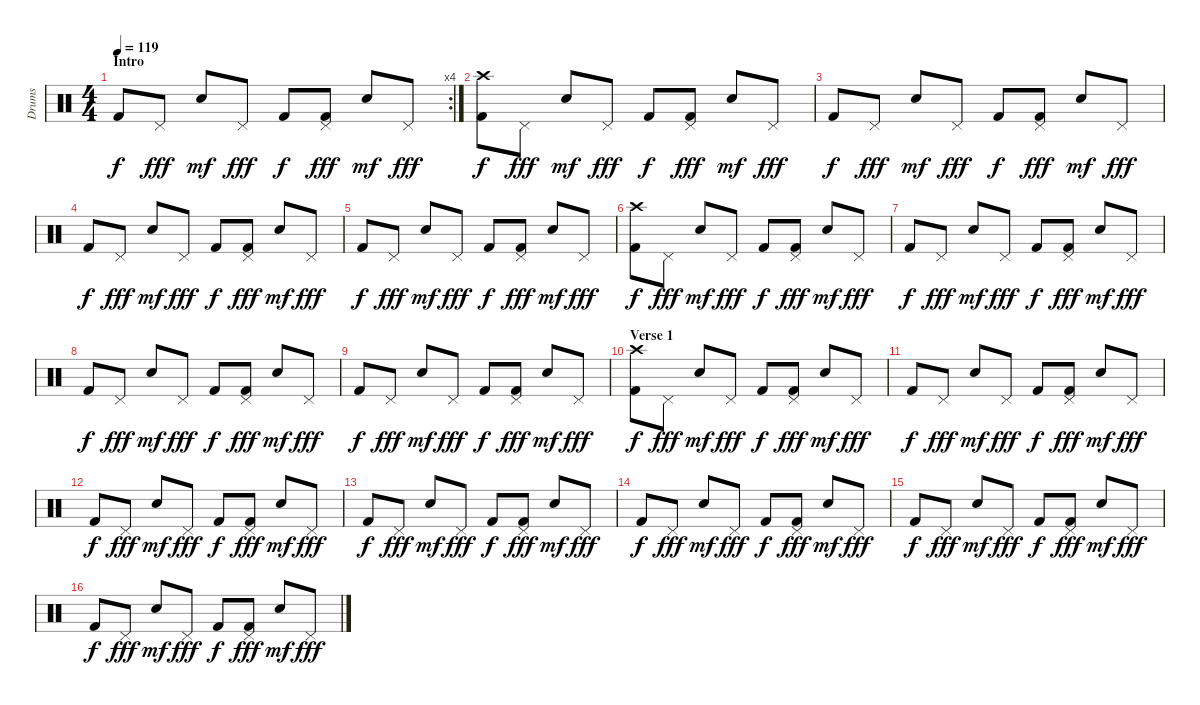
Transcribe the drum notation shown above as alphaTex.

\track ("Drums" "Drums") {instrument percussion}
\staff {score}
\articulation defaults
\rc 4
\ts (4 4)
\section ("" "Intro")
\tempo 119
\clef neutral
\ks c "Kick (hit) 2".8{dy f} "Pedal Hi-Hat (hit)".8{dy fff} "Electric Snare (hit)".8{dy mf} "Pedal Hi-Hat (hit)".8{dy fff} "Kick (hit) 2".8{dy f}
("Pedal Hi-Hat (hit)" "Kick (hit) 2").8{dy fff} "Electric Snare (hit)".8{dy mf} "Pedal Hi-Hat (hit)".8{dy fff} |
("Crash high (hit)" "Kick (hit) 2").8{dy f} "Pedal Hi-Hat (hit)".8{dy fff} "Electric Snare (hit)".8{dy mf} "Pedal Hi-Hat (hit)".8{dy fff} "Kick (hit) 2".8{dy f} ("Pedal Hi-Hat (hit)" "Kick (hit) 2").8{dy fff} "Electric Snare (hit)".8{dy mf} "Pedal Hi-Hat (hit)".8{dy fff} |
"Kick (hit) 2".8{dy f} "Pedal Hi-Hat (hit)".8{dy fff} "Electric Snare (hit)".8{dy mf} "Pedal Hi-Hat (hit)".8{dy fff} "Kick (hit) 2".8{dy f} ("Pedal Hi-Hat (hit)" "Kick (hit) 2").8{dy fff} "Electric Snare (hit)".8{dy mf} "Pedal Hi-Hat (hit)".8{dy fff} |
"Kick (hit) 2".8{dy f} "Pedal Hi-Hat (hit)".8{dy fff} "Electric Snare (hit)".8{dy mf} "Pedal Hi-Hat (hit)".8{dy fff} "Kick (hit) 2".8{dy f} ("Pedal Hi-Hat (hit)" "Kick (hit) 2").8{dy fff} "Electric Snare (hit)".8{dy mf} "Pedal Hi-Hat (hit)".8{dy fff} |
"Kick (hit) 2".8{dy f} "Pedal Hi-Hat (hit)".8{dy fff} "Electric Snare (hit)".8{dy mf} "Pedal Hi-Hat (hit)".8{dy fff} "Kick (hit) 2".8{dy f} ("Pedal Hi-Hat (hit)" "Kick (hit) 2").8{dy fff} "Electric Snare (hit)".8{dy mf} "Pedal Hi-Hat (hit)".8{dy fff} |
("Crash high (hit)" "Kick (hit) 2").8{dy f} "Pedal Hi-Hat (hit)".8{dy fff} "Electric Snare (hit)".8{dy mf} "Pedal Hi-Hat (hit)".8{dy fff} "Kick (hit) 2".8{dy f} ("Pedal Hi-Hat (hit)" "Kick (hit) 2").8{dy fff} "Electric Snare (hit)".8{dy mf} "Pedal Hi-Hat (hit)".8{dy fff} |
"Kick (hit) 2".8{dy f} "Pedal Hi-Hat (hit)".8{dy fff} "Electric Snare (hit)".8{dy mf} "Pedal Hi-Hat (hit)".8{dy fff} "Kick (hit) 2".8{dy f} ("Pedal Hi-Hat (hit)" "Kick (hit) 2").8{dy fff} "Electric Snare (hit)".8{dy mf} "Pedal Hi-Hat (hit)".8{dy fff} |
"Kick (hit) 2".8{dy f} "Pedal Hi-Hat (hit)".8{dy fff} "Electric Snare (hit)".8{dy mf} "Pedal Hi-Hat (hit)".8{dy fff} "Kick (hit) 2".8{dy f} ("Pedal Hi-Hat (hit)" "Kick (hit) 2").8{dy fff} "Electric Snare (hit)".8{dy mf} "Pedal Hi-Hat (hit)".8{dy fff} |
"Kick (hit) 2".8{dy f} "Pedal Hi-Hat (hit)".8{dy fff} "Electric Snare (hit)".8{dy mf} "Pedal Hi-Hat (hit)".8{dy fff} "Kick (hit) 2".8{dy f} ("Pedal Hi-Hat (hit)" "Kick (hit) 2").8{dy fff} "Electric Snare (hit)".8{dy mf} "Pedal Hi-Hat (hit)".8{dy fff} |
\section ("" "Verse 1")
("Crash high (hit)" "Kick (hit) 2").8{dy f} "Pedal Hi-Hat (hit)".8{dy fff} "Electric Snare (hit)".8{dy mf} "Pedal Hi-Hat (hit)".8{dy fff} "Kick (hit) 2".8{dy f} ("Pedal Hi-Hat (hit)" "Kick (hit) 2").8{dy fff} "Electric Snare (hit)".8{dy mf} "Pedal Hi-Hat (hit)".8{dy fff} |
"Kick (hit) 2".8{dy f} "Pedal Hi-Hat (hit)".8{dy fff} "Electric Snare (hit)".8{dy mf} "Pedal Hi-Hat (hit)".8{dy fff} "Kick (hit) 2".8{dy f} ("Pedal Hi-Hat (hit)" "Kick (hit) 2").8{dy fff} "Electric Snare (hit)".8{dy mf} "Pedal Hi-Hat (hit)".8{dy fff} |
"Kick (hit) 2".8{dy f} "Pedal Hi-Hat (hit)".8{dy fff} "Electric Snare (hit)".8{dy mf} "Pedal Hi-Hat (hit)".8{dy fff} "Kick (hit) 2".8{dy f} ("Pedal Hi-Hat (hit)" "Kick (hit) 2").8{dy fff} "Electric Snare (hit)".8{dy mf} "Pedal Hi-Hat (hit)".8{dy fff} |
"Kick (hit) 2".8{dy f} "Pedal Hi-Hat (hit)".8{dy fff} "Electric Snare (hit)".8{dy mf} "Pedal Hi-Hat (hit)".8{dy fff} "Kick (hit) 2".8{dy f} ("Pedal Hi-Hat (hit)" "Kick (hit) 2").8{dy fff} "Electric Snare (hit)".8{dy mf} "Pedal Hi-Hat (hit)".8{dy fff} |
"Kick (hit) 2".8{dy f} "Pedal Hi-Hat (hit)".8{dy fff} "Electric Snare (hit)".8{dy mf} "Pedal Hi-Hat (hit)".8{dy fff} "Kick (hit) 2".8{dy f} ("Pedal Hi-Hat (hit)" "Kick (hit) 2").8{dy fff} "Electric Snare (hit)".8{dy mf} "Pedal Hi-Hat (hit)".8{dy fff} |
"Kick (hit) 2".8{dy f} "Pedal Hi-Hat (hit)".8{dy fff} "Electric Snare (hit)".8{dy mf} "Pedal Hi-Hat (hit)".8{dy fff} "Kick (hit) 2".8{dy f} ("Pedal Hi-Hat (hit)" "Kick (hit) 2").8{dy fff} "Electric Snare (hit)".8{dy mf} "Pedal Hi-Hat (hit)".8{dy fff} |
"Kick (hit) 2".8{dy f} "Pedal Hi-Hat (hit)".8{dy fff} "Electric Snare (hit)".8{dy mf} "Pedal Hi-Hat (hit)".8{dy fff} "Kick (hit) 2".8{dy f} ("Pedal Hi-Hat (hit)" "Kick (hit) 2").8{dy fff} "Electric Snare (hit)".8{dy mf} "Pedal Hi-Hat (hit)".8{dy fff}
